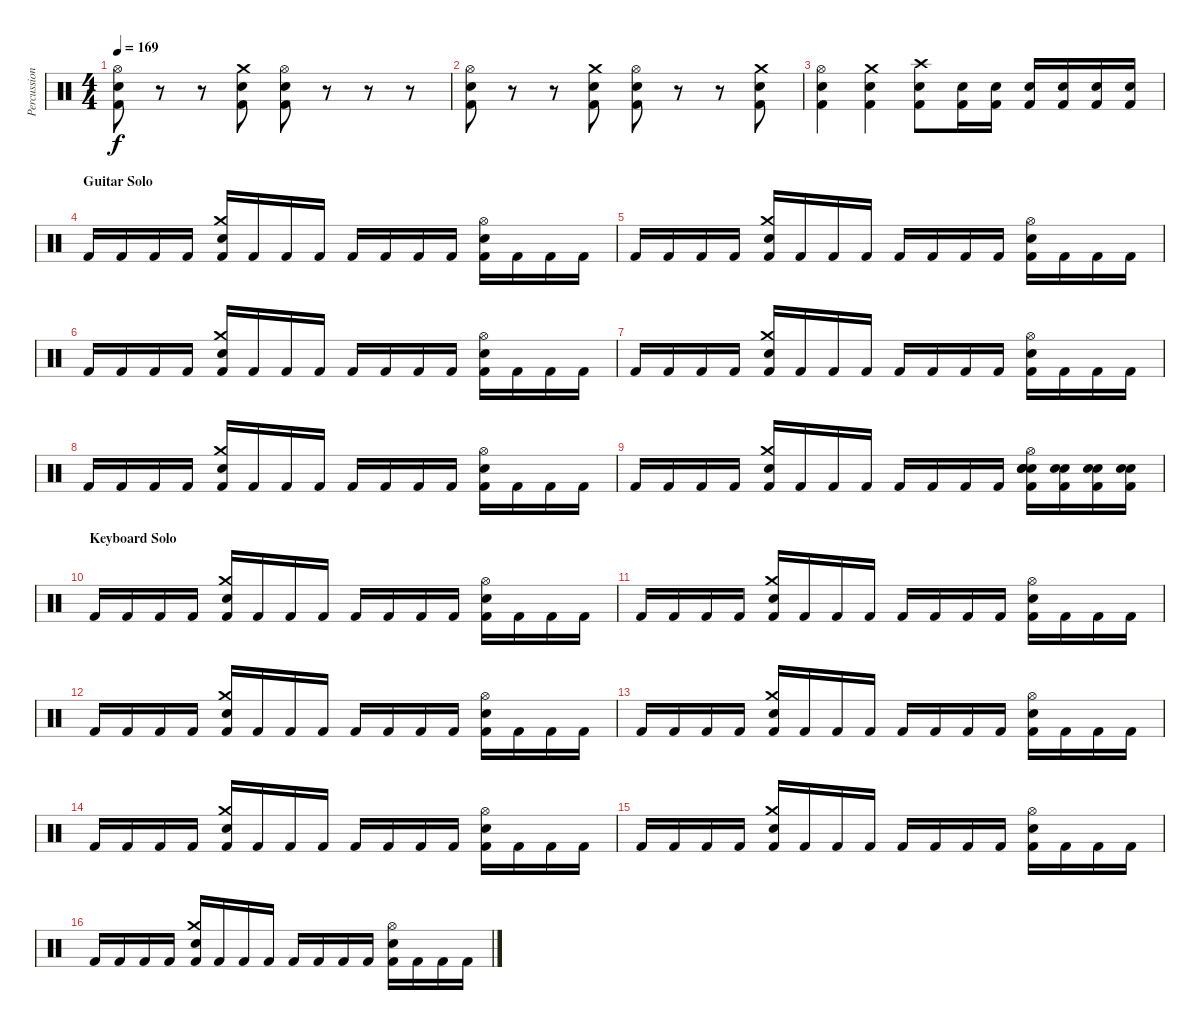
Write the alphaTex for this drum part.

\track ("Percussion" "Percussion") {instrument percussion}
\staff {score}
\articulation defaults
\ts (4 4)
\tempo 169
\clef neutral
\ks c
("Hi-Hat (open)" "Snare (hit) 2" "Kick (hit) 2").8{dy f} r.8 r.8 ("Crash medium (hit)" "Snare (hit) 2" "Kick (hit) 2").8 ("Hi-Hat (open)" "Snare (hit) 2" "Kick (hit) 2").8 r.8 r.8 r.8 |
("Hi-Hat (open)" "Snare (hit) 2" "Kick (hit) 2").8 r.8 r.8 ("Crash medium (hit)" "Snare (hit) 2" "Kick (hit) 2").8 ("Hi-Hat (open)" "Snare (hit) 2" "Kick (hit) 2").8 r.8 r.8 ("Crash medium (hit)" "Snare (hit) 2" "Kick (hit) 2").8 |
("Hi-Hat (open)" "Snare (hit) 2" "Kick (hit) 2").4 ("Crash medium (hit)" "Snare (hit) 2" "Kick (hit) 2").4 ("Crash high (hit)" "Snare (hit) 2" "Kick (hit) 2").8 ("Snare (hit) 2" "Kick (hit) 2").16 ("Snare (hit) 2" "Kick (hit) 2").16 ("Snare (hit) 2" "Kick (hit) 2").16 ("Snare (hit) 2" "Kick (hit) 2").16 ("Snare (hit) 2" "Kick (hit) 2").16 ("Snare (hit) 2" "Kick (hit) 2").16 |
\section ("" "Guitar Solo")
"Kick (hit) 2".16 "Kick (hit) 2".16 "Kick (hit) 2".16 "Kick (hit) 2".16 ("Crash medium (hit)" "Electric Snare (hit)" "Kick (hit) 2").16 "Kick (hit) 2".16 "Kick (hit) 2".16 "Kick (hit) 2".16 "Kick (hit) 2".16 "Kick (hit) 2".16 "Kick (hit) 2".16 "Kick (hit) 2".16 ("Hi-Hat (open)" "Snare (hit) 2" "Kick (hit) 2").16 "Kick (hit) 2".16 "Kick (hit) 2".16 "Kick (hit) 2".16 |
"Kick (hit) 2".16 "Kick (hit) 2".16 "Kick (hit) 2".16 "Kick (hit) 2".16 ("Crash medium (hit)" "Electric Snare (hit)" "Kick (hit) 2").16 "Kick (hit) 2".16 "Kick (hit) 2".16 "Kick (hit) 2".16 "Kick (hit) 2".16 "Kick (hit) 2".16 "Kick (hit) 2".16 "Kick (hit) 2".16 ("Hi-Hat (open)" "Snare (hit) 2" "Kick (hit) 2").16 "Kick (hit) 2".16 "Kick (hit) 2".16 "Kick (hit) 2".16 |
"Kick (hit) 2".16 "Kick (hit) 2".16 "Kick (hit) 2".16 "Kick (hit) 2".16 ("Crash medium (hit)" "Electric Snare (hit)" "Kick (hit) 2").16 "Kick (hit) 2".16 "Kick (hit) 2".16 "Kick (hit) 2".16 "Kick (hit) 2".16 "Kick (hit) 2".16 "Kick (hit) 2".16 "Kick (hit) 2".16 ("Hi-Hat (open)" "Snare (hit) 2" "Kick (hit) 2").16 "Kick (hit) 2".16 "Kick (hit) 2".16 "Kick (hit) 2".16 |
"Kick (hit) 2".16 "Kick (hit) 2".16 "Kick (hit) 2".16 "Kick (hit) 2".16 ("Crash medium (hit)" "Electric Snare (hit)" "Kick (hit) 2").16 "Kick (hit) 2".16 "Kick (hit) 2".16 "Kick (hit) 2".16 "Kick (hit) 2".16 "Kick (hit) 2".16 "Kick (hit) 2".16 "Kick (hit) 2".16 ("Hi-Hat (open)" "Snare (hit) 2" "Kick (hit) 2").16 "Kick (hit) 2".16 "Kick (hit) 2".16 "Kick (hit) 2".16 |
"Kick (hit) 2".16 "Kick (hit) 2".16 "Kick (hit) 2".16 "Kick (hit) 2".16 ("Crash medium (hit)" "Electric Snare (hit)" "Kick (hit) 2").16 "Kick (hit) 2".16 "Kick (hit) 2".16 "Kick (hit) 2".16 "Kick (hit) 2".16 "Kick (hit) 2".16 "Kick (hit) 2".16 "Kick (hit) 2".16 ("Hi-Hat (open)" "Snare (hit) 2" "Kick (hit) 2").16 "Kick (hit) 2".16 "Kick (hit) 2".16 "Kick (hit) 2".16 |
"Kick (hit) 2".16 "Kick (hit) 2".16 "Kick (hit) 2".16 "Kick (hit) 2".16 ("Crash medium (hit)" "Electric Snare (hit)" "Kick (hit) 2").16 "Kick (hit) 2".16 "Kick (hit) 2".16 "Kick (hit) 2".16 "Kick (hit) 2".16 "Kick (hit) 2".16 "Kick (hit) 2".16 "Kick (hit) 2".16 ("Hi-Hat (open)" "Snare (hit) 2" "Snare (hit) 2" "Snare (hit) 2" "Kick (hit) 2").16 ("Snare (hit) 2" "Snare (hit) 2" "Kick (hit) 2").16 ("Snare (hit) 2" "Snare (hit) 2" "Kick (hit) 2").16 ("Snare (hit) 2" "Snare (hit) 2" "Kick (hit) 2").16 |
\section ("" "Keyboard Solo")
"Kick (hit) 2".16 "Kick (hit) 2".16 "Kick (hit) 2".16 "Kick (hit) 2".16 ("Crash medium (hit)" "Electric Snare (hit)" "Kick (hit) 2").16 "Kick (hit) 2".16 "Kick (hit) 2".16 "Kick (hit) 2".16 "Kick (hit) 2".16 "Kick (hit) 2".16 "Kick (hit) 2".16 "Kick (hit) 2".16 ("Hi-Hat (open)" "Snare (hit) 2" "Kick (hit) 2").16 "Kick (hit) 2".16 "Kick (hit) 2".16 "Kick (hit) 2".16 |
"Kick (hit) 2".16 "Kick (hit) 2".16 "Kick (hit) 2".16 "Kick (hit) 2".16 ("Crash medium (hit)" "Electric Snare (hit)" "Kick (hit) 2").16 "Kick (hit) 2".16 "Kick (hit) 2".16 "Kick (hit) 2".16 "Kick (hit) 2".16 "Kick (hit) 2".16 "Kick (hit) 2".16 "Kick (hit) 2".16 ("Hi-Hat (open)" "Snare (hit) 2" "Kick (hit) 2").16 "Kick (hit) 2".16 "Kick (hit) 2".16 "Kick (hit) 2".16 |
"Kick (hit) 2".16 "Kick (hit) 2".16 "Kick (hit) 2".16 "Kick (hit) 2".16 ("Crash medium (hit)" "Electric Snare (hit)" "Kick (hit) 2").16 "Kick (hit) 2".16 "Kick (hit) 2".16 "Kick (hit) 2".16 "Kick (hit) 2".16 "Kick (hit) 2".16 "Kick (hit) 2".16 "Kick (hit) 2".16 ("Hi-Hat (open)" "Snare (hit) 2" "Kick (hit) 2").16 "Kick (hit) 2".16 "Kick (hit) 2".16 "Kick (hit) 2".16 |
"Kick (hit) 2".16 "Kick (hit) 2".16 "Kick (hit) 2".16 "Kick (hit) 2".16 ("Crash medium (hit)" "Electric Snare (hit)" "Kick (hit) 2").16 "Kick (hit) 2".16 "Kick (hit) 2".16 "Kick (hit) 2".16 "Kick (hit) 2".16 "Kick (hit) 2".16 "Kick (hit) 2".16 "Kick (hit) 2".16 ("Hi-Hat (open)" "Snare (hit) 2" "Kick (hit) 2").16 "Kick (hit) 2".16 "Kick (hit) 2".16 "Kick (hit) 2".16 |
"Kick (hit) 2".16 "Kick (hit) 2".16 "Kick (hit) 2".16 "Kick (hit) 2".16 ("Crash medium (hit)" "Electric Snare (hit)" "Kick (hit) 2").16 "Kick (hit) 2".16 "Kick (hit) 2".16 "Kick (hit) 2".16 "Kick (hit) 2".16 "Kick (hit) 2".16 "Kick (hit) 2".16 "Kick (hit) 2".16 ("Hi-Hat (open)" "Snare (hit) 2" "Kick (hit) 2").16 "Kick (hit) 2".16 "Kick (hit) 2".16 "Kick (hit) 2".16 |
"Kick (hit) 2".16 "Kick (hit) 2".16 "Kick (hit) 2".16 "Kick (hit) 2".16 ("Crash medium (hit)" "Electric Snare (hit)" "Kick (hit) 2").16 "Kick (hit) 2".16 "Kick (hit) 2".16 "Kick (hit) 2".16 "Kick (hit) 2".16 "Kick (hit) 2".16 "Kick (hit) 2".16 "Kick (hit) 2".16 ("Hi-Hat (open)" "Snare (hit) 2" "Kick (hit) 2").16 "Kick (hit) 2".16 "Kick (hit) 2".16 "Kick (hit) 2".16 |
"Kick (hit) 2".16 "Kick (hit) 2".16 "Kick (hit) 2".16 "Kick (hit) 2".16 ("Crash medium (hit)" "Electric Snare (hit)" "Kick (hit) 2").16 "Kick (hit) 2".16 "Kick (hit) 2".16 "Kick (hit) 2".16 "Kick (hit) 2".16 "Kick (hit) 2".16 "Kick (hit) 2".16 "Kick (hit) 2".16 ("Hi-Hat (open)" "Snare (hit) 2" "Kick (hit) 2").16 "Kick (hit) 2".16 "Kick (hit) 2".16 "Kick (hit) 2".16
